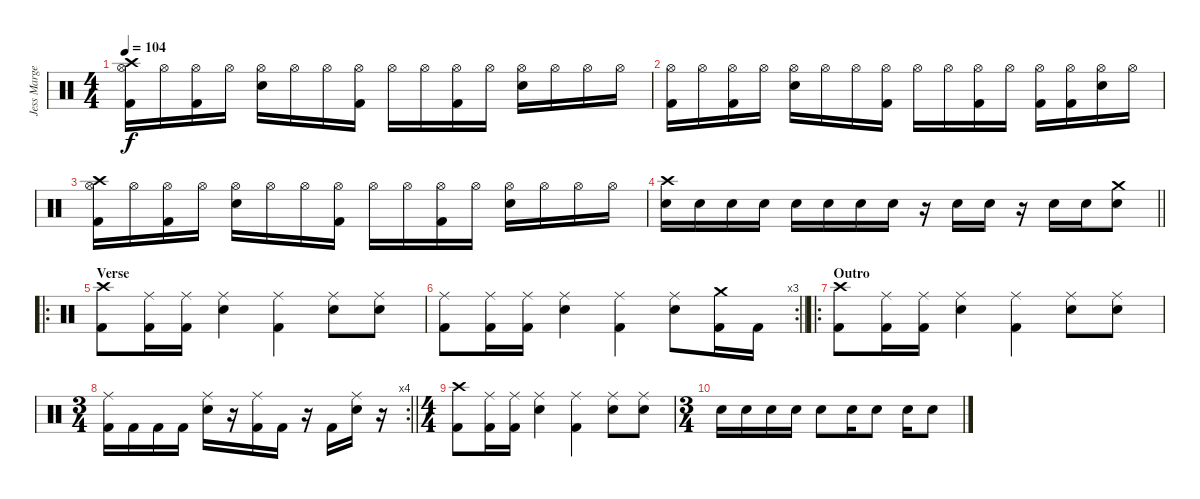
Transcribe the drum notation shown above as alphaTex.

\track ("Jess Margera" "Jess Marge") {instrument percussion}
\staff {score}
\articulation defaults
\ts (4 4)
\tempo 104
\clef neutral
\ks c
("Crash high (hit)" "Hi-Hat (open)" "Kick (hit) 2").16{dy f} "Hi-Hat (open)".16 ("Hi-Hat (open)" "Kick (hit) 2").16 "Hi-Hat (open)".16 ("Hi-Hat (open)" "Electric Snare (hit)").16 "Hi-Hat (open)".16 "Hi-Hat (open)".16 ("Hi-Hat (open)" "Kick (hit) 2").16 "Hi-Hat (open)".16 "Hi-Hat (open)".16 ("Hi-Hat (open)" "Kick (hit) 2").16 "Hi-Hat (open)".16 ("Hi-Hat (open)" "Electric Snare (hit)").16 "Hi-Hat (open)".16 "Hi-Hat (open)".16 "Hi-Hat (open)".16 |
("Hi-Hat (open)" "Kick (hit) 2").16 "Hi-Hat (open)".16 ("Hi-Hat (open)" "Kick (hit) 2").16 "Hi-Hat (open)".16 ("Hi-Hat (open)" "Electric Snare (hit)").16 "Hi-Hat (open)".16 "Hi-Hat (open)".16 ("Hi-Hat (open)" "Kick (hit) 2").16 "Hi-Hat (open)".16 "Hi-Hat (open)".16 ("Hi-Hat (open)" "Kick (hit) 2").16 "Hi-Hat (open)".16 ("Hi-Hat (open)" "Kick (hit) 2").16 ("Hi-Hat (open)" "Kick (hit) 2").16 ("Hi-Hat (open)" "Electric Snare (hit)").16 "Hi-Hat (open)".16 |
("Crash high (hit)" "Hi-Hat (open)" "Kick (hit) 2").16 "Hi-Hat (open)".16 ("Hi-Hat (open)" "Kick (hit) 2").16 "Hi-Hat (open)".16 ("Hi-Hat (open)" "Electric Snare (hit)").16 "Hi-Hat (open)".16 "Hi-Hat (open)".16 ("Hi-Hat (open)" "Kick (hit) 2").16 "Hi-Hat (open)".16 "Hi-Hat (open)".16 ("Hi-Hat (open)" "Kick (hit) 2").16 "Hi-Hat (open)".16 ("Hi-Hat (open)" "Electric Snare (hit)").16 "Hi-Hat (open)".16 "Hi-Hat (open)".16 "Hi-Hat (open)".16 |
\barLineRight lightlight
("Crash high (hit)" "Electric Snare (hit)").16 "Electric Snare (hit)".16 "Electric Snare (hit)".16 "Electric Snare (hit)".16 "Electric Snare (hit)".16 "Electric Snare (hit)".16 "Electric Snare (hit)".16 "Electric Snare (hit)".16 r.16 "Electric Snare (hit)".16 "Electric Snare (hit)".16 r.16 "Electric Snare (hit)".16 "Electric Snare (hit)".16 ("Crash medium (hit)" "Electric Snare (hit)").8 |
\ro
\section ("" "Verse")
("Crash high (hit)" "Kick (hit) 2").8 ("Ride (middle)" "Kick (hit) 2").16 ("Ride (middle)" "Kick (hit) 2").16 ("Ride (middle)" "Electric Snare (hit)").4 ("Ride (middle)" "Kick (hit) 2").4 ("Ride (middle)" "Electric Snare (hit)").8 ("Ride (middle)" "Electric Snare (hit)").8 |
\rc 3
\barLineRight lightlight
("Ride (middle)" "Kick (hit) 2").8 ("Ride (middle)" "Kick (hit) 2").16 ("Ride (middle)" "Kick (hit) 2").16 ("Ride (middle)" "Electric Snare (hit)").4 ("Ride (middle)" "Kick (hit) 2").4 ("Ride (middle)" "Electric Snare (hit)").8 ("Crash medium (hit)" "Kick (hit) 2").16 "Kick (hit) 2".16 |
\ro
\section ("" "Outro")
("Crash high (hit)" "Kick (hit) 2").8 ("Ride (middle)" "Kick (hit) 2").16 ("Ride (middle)" "Kick (hit) 2").16 ("Ride (middle)" "Electric Snare (hit)").4 ("Ride (middle)" "Kick (hit) 2").4 ("Ride (middle)" "Electric Snare (hit)").8 ("Ride (middle)" "Electric Snare (hit)").8 |
\rc 4
\ts (3 4)
\barLineRight lightlight
("Ride (middle)" "Kick (hit) 2").16 "Kick (hit) 2".16 "Kick (hit) 2".16 "Kick (hit) 2".16 ("Ride (middle)" "Electric Snare (hit)").16 r.16 ("Ride (middle)" "Kick (hit) 2").16 "Kick (hit) 2".16 r.16 "Kick (hit) 2".16 ("Ride (middle)" "Electric Snare (hit)").16 r.16 |
\ts (4 4)
("Crash high (hit)" "Kick (hit) 2").8 ("Ride (middle)" "Kick (hit) 2").16 ("Ride (middle)" "Kick (hit) 2").16 ("Ride (middle)" "Electric Snare (hit)").4 ("Ride (middle)" "Kick (hit) 2").4 ("Ride (middle)" "Electric Snare (hit)").8 ("Ride (middle)" "Electric Snare (hit)").8 |
\ts (3 4)
"Electric Snare (hit)".16 "Electric Snare (hit)".16 "Electric Snare (hit)".16 "Electric Snare (hit)".16 "Electric Snare (hit)".8 "Electric Snare (hit)".16 "Electric Snare (hit)".8 "Electric Snare (hit)".16 "Electric Snare (hit)".8
